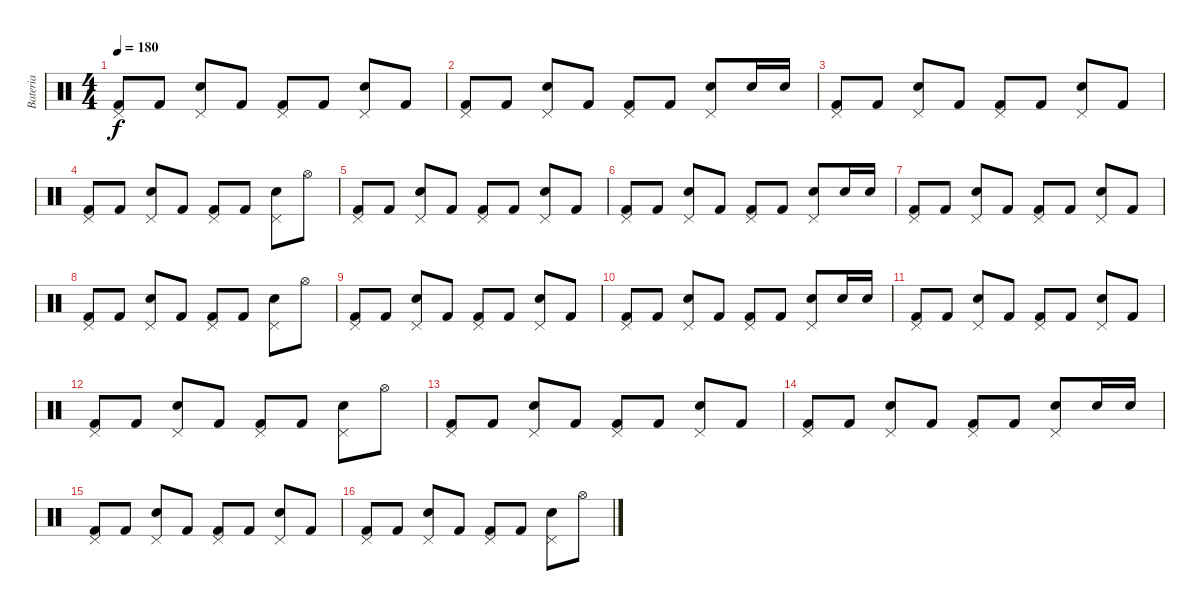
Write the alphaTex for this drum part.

\track ("Bateria" "Bateria") {instrument percussion}
\staff {score}
\articulation defaults
\ts (4 4)
\tempo 180
\clef neutral
\ks c
("Kick (hit) 2" "Pedal Hi-Hat (hit)").8{dy f} "Kick (hit) 2".8 ("Electric Snare (hit)" "Pedal Hi-Hat (hit)").8 "Kick (hit) 2".8 ("Kick (hit) 2" "Pedal Hi-Hat (hit)").8 "Kick (hit) 2".8 ("Electric Snare (hit)" "Pedal Hi-Hat (hit)").8 "Kick (hit) 2".8 |
("Kick (hit) 2" "Pedal Hi-Hat (hit)").8 "Kick (hit) 2".8 ("Electric Snare (hit)" "Pedal Hi-Hat (hit)").8 "Kick (hit) 2".8 ("Kick (hit) 2" "Pedal Hi-Hat (hit)").8 "Kick (hit) 2".8 ("Electric Snare (hit)" "Pedal Hi-Hat (hit)").8 "Electric Snare (hit)".16 "Electric Snare (hit)".16 |
("Kick (hit) 2" "Pedal Hi-Hat (hit)").8 "Kick (hit) 2".8 ("Electric Snare (hit)" "Pedal Hi-Hat (hit)").8 "Kick (hit) 2".8 ("Kick (hit) 2" "Pedal Hi-Hat (hit)").8 "Kick (hit) 2".8 ("Electric Snare (hit)" "Pedal Hi-Hat (hit)").8 "Kick (hit) 2".8 |
("Kick (hit) 2" "Pedal Hi-Hat (hit)").8 "Kick (hit) 2".8 ("Electric Snare (hit)" "Pedal Hi-Hat (hit)").8 "Kick (hit) 2".8 ("Kick (hit) 2" "Pedal Hi-Hat (hit)").8 "Kick (hit) 2".8 ("Electric Snare (hit)" "Pedal Hi-Hat (hit)").8 "Hi-Hat (open)".8 |
("Kick (hit) 2" "Pedal Hi-Hat (hit)").8 "Kick (hit) 2".8 ("Electric Snare (hit)" "Pedal Hi-Hat (hit)").8 "Kick (hit) 2".8 ("Kick (hit) 2" "Pedal Hi-Hat (hit)").8 "Kick (hit) 2".8 ("Electric Snare (hit)" "Pedal Hi-Hat (hit)").8 "Kick (hit) 2".8 |
("Kick (hit) 2" "Pedal Hi-Hat (hit)").8 "Kick (hit) 2".8 ("Electric Snare (hit)" "Pedal Hi-Hat (hit)").8 "Kick (hit) 2".8 ("Kick (hit) 2" "Pedal Hi-Hat (hit)").8 "Kick (hit) 2".8 ("Electric Snare (hit)" "Pedal Hi-Hat (hit)").8 "Electric Snare (hit)".16 "Electric Snare (hit)".16 |
("Kick (hit) 2" "Pedal Hi-Hat (hit)").8 "Kick (hit) 2".8 ("Electric Snare (hit)" "Pedal Hi-Hat (hit)").8 "Kick (hit) 2".8 ("Kick (hit) 2" "Pedal Hi-Hat (hit)").8 "Kick (hit) 2".8 ("Electric Snare (hit)" "Pedal Hi-Hat (hit)").8 "Kick (hit) 2".8 |
("Kick (hit) 2" "Pedal Hi-Hat (hit)").8 "Kick (hit) 2".8 ("Electric Snare (hit)" "Pedal Hi-Hat (hit)").8 "Kick (hit) 2".8 ("Kick (hit) 2" "Pedal Hi-Hat (hit)").8 "Kick (hit) 2".8 ("Electric Snare (hit)" "Pedal Hi-Hat (hit)").8 "Hi-Hat (open)".8 |
("Kick (hit) 2" "Pedal Hi-Hat (hit)").8 "Kick (hit) 2".8 ("Electric Snare (hit)" "Pedal Hi-Hat (hit)").8 "Kick (hit) 2".8 ("Kick (hit) 2" "Pedal Hi-Hat (hit)").8 "Kick (hit) 2".8 ("Electric Snare (hit)" "Pedal Hi-Hat (hit)").8 "Kick (hit) 2".8 |
("Kick (hit) 2" "Pedal Hi-Hat (hit)").8 "Kick (hit) 2".8 ("Electric Snare (hit)" "Pedal Hi-Hat (hit)").8 "Kick (hit) 2".8 ("Kick (hit) 2" "Pedal Hi-Hat (hit)").8 "Kick (hit) 2".8 ("Electric Snare (hit)" "Pedal Hi-Hat (hit)").8 "Electric Snare (hit)".16 "Electric Snare (hit)".16 |
("Kick (hit) 2" "Pedal Hi-Hat (hit)").8 "Kick (hit) 2".8 ("Electric Snare (hit)" "Pedal Hi-Hat (hit)").8 "Kick (hit) 2".8 ("Kick (hit) 2" "Pedal Hi-Hat (hit)").8 "Kick (hit) 2".8 ("Electric Snare (hit)" "Pedal Hi-Hat (hit)").8 "Kick (hit) 2".8 |
("Kick (hit) 2" "Pedal Hi-Hat (hit)").8 "Kick (hit) 2".8 ("Electric Snare (hit)" "Pedal Hi-Hat (hit)").8 "Kick (hit) 2".8 ("Kick (hit) 2" "Pedal Hi-Hat (hit)").8 "Kick (hit) 2".8 ("Electric Snare (hit)" "Pedal Hi-Hat (hit)").8 "Hi-Hat (open)".8 |
("Kick (hit) 2" "Pedal Hi-Hat (hit)").8 "Kick (hit) 2".8 ("Electric Snare (hit)" "Pedal Hi-Hat (hit)").8 "Kick (hit) 2".8 ("Kick (hit) 2" "Pedal Hi-Hat (hit)").8 "Kick (hit) 2".8 ("Electric Snare (hit)" "Pedal Hi-Hat (hit)").8 "Kick (hit) 2".8 |
("Kick (hit) 2" "Pedal Hi-Hat (hit)").8 "Kick (hit) 2".8 ("Electric Snare (hit)" "Pedal Hi-Hat (hit)").8 "Kick (hit) 2".8 ("Kick (hit) 2" "Pedal Hi-Hat (hit)").8 "Kick (hit) 2".8 ("Electric Snare (hit)" "Pedal Hi-Hat (hit)").8 "Electric Snare (hit)".16 "Electric Snare (hit)".16 |
("Kick (hit) 2" "Pedal Hi-Hat (hit)").8 "Kick (hit) 2".8 ("Electric Snare (hit)" "Pedal Hi-Hat (hit)").8 "Kick (hit) 2".8 ("Kick (hit) 2" "Pedal Hi-Hat (hit)").8 "Kick (hit) 2".8 ("Electric Snare (hit)" "Pedal Hi-Hat (hit)").8 "Kick (hit) 2".8 |
("Kick (hit) 2" "Pedal Hi-Hat (hit)").8 "Kick (hit) 2".8 ("Electric Snare (hit)" "Pedal Hi-Hat (hit)").8 "Kick (hit) 2".8 ("Kick (hit) 2" "Pedal Hi-Hat (hit)").8 "Kick (hit) 2".8 ("Electric Snare (hit)" "Pedal Hi-Hat (hit)").8 "Hi-Hat (open)".8
